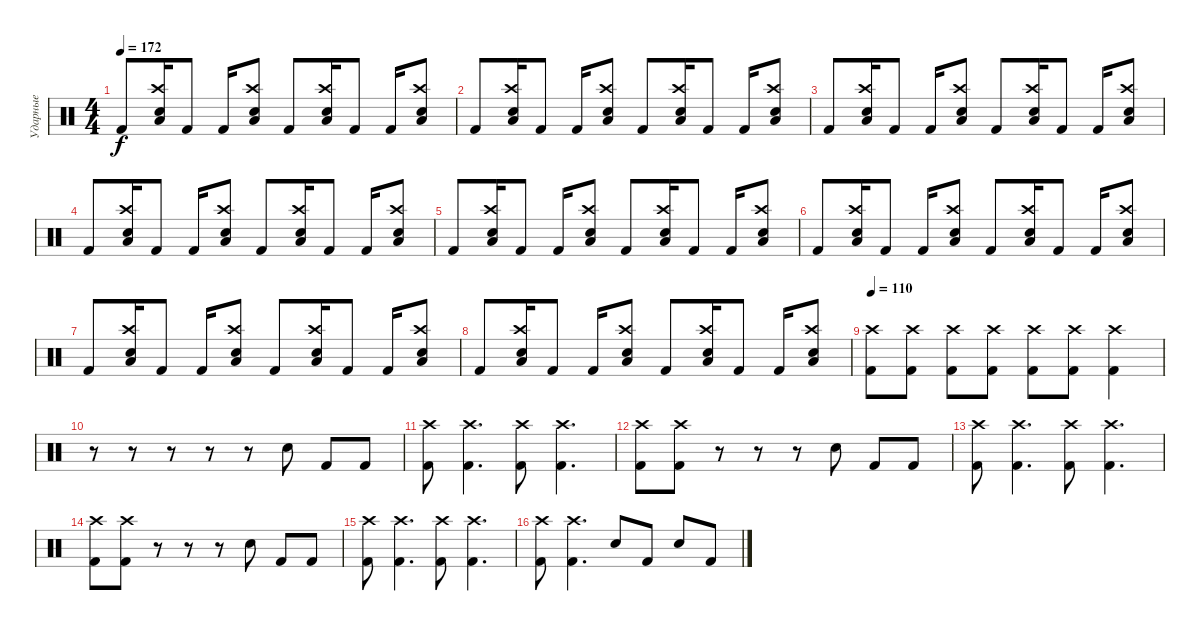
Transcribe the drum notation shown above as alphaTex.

\track ("Ударные" "Ударные") {instrument percussion}
\staff {score}
\articulation defaults
\ts (4 4)
\tempo 172
\clef neutral
\ks c "Kick (hit) 2".8{dy f}
("Low Floor Tom (hit)" "Crash high (hit)" "Electric Snare (hit)").16 "Kick (hit) 2".8 "Kick (hit) 2".16 ("Low Floor Tom (hit)" "Crash high (hit)" "Electric Snare (hit)").8 "Kick (hit) 2".8 ("Low Floor Tom (hit)" "Crash high (hit)" "Electric Snare (hit)").16 "Kick (hit) 2".8 "Kick (hit) 2".16 ("Low Floor Tom (hit)" "Crash high (hit)" "Electric Snare (hit)").8 |
"Kick (hit) 2".8 ("Low Floor Tom (hit)" "Crash high (hit)" "Electric Snare (hit)").16 "Kick (hit) 2".8 "Kick (hit) 2".16 ("Low Floor Tom (hit)" "Crash high (hit)" "Electric Snare (hit)").8 "Kick (hit) 2".8 ("Low Floor Tom (hit)" "Crash high (hit)" "Electric Snare (hit)").16 "Kick (hit) 2".8 "Kick (hit) 2".16 ("Low Floor Tom (hit)" "Crash high (hit)" "Electric Snare (hit)").8 |
"Kick (hit) 2".8 ("Low Floor Tom (hit)" "Crash high (hit)" "Electric Snare (hit)").16 "Kick (hit) 2".8 "Kick (hit) 2".16 ("Low Floor Tom (hit)" "Crash high (hit)" "Electric Snare (hit)").8 "Kick (hit) 2".8 ("Low Floor Tom (hit)" "Crash high (hit)" "Electric Snare (hit)").16 "Kick (hit) 2".8 "Kick (hit) 2".16 ("Low Floor Tom (hit)" "Crash high (hit)" "Electric Snare (hit)").8 |
"Kick (hit) 2".8 ("Low Floor Tom (hit)" "Crash high (hit)" "Electric Snare (hit)").16 "Kick (hit) 2".8 "Kick (hit) 2".16 ("Low Floor Tom (hit)" "Crash high (hit)" "Electric Snare (hit)").8 "Kick (hit) 2".8 ("Low Floor Tom (hit)" "Crash high (hit)" "Electric Snare (hit)").16 "Kick (hit) 2".8 "Kick (hit) 2".16 ("Low Floor Tom (hit)" "Crash high (hit)" "Electric Snare (hit)").8 |
"Kick (hit) 2".8 ("Low Floor Tom (hit)" "Crash high (hit)" "Electric Snare (hit)").16 "Kick (hit) 2".8 "Kick (hit) 2".16 ("Low Floor Tom (hit)" "Crash high (hit)" "Electric Snare (hit)").8 "Kick (hit) 2".8 ("Low Floor Tom (hit)" "Crash high (hit)" "Electric Snare (hit)").16 "Kick (hit) 2".8 "Kick (hit) 2".16 ("Low Floor Tom (hit)" "Crash high (hit)" "Electric Snare (hit)").8 |
"Kick (hit) 2".8 ("Low Floor Tom (hit)" "Crash high (hit)" "Electric Snare (hit)").16 "Kick (hit) 2".8 "Kick (hit) 2".16 ("Low Floor Tom (hit)" "Crash high (hit)" "Electric Snare (hit)").8 "Kick (hit) 2".8 ("Low Floor Tom (hit)" "Crash high (hit)" "Electric Snare (hit)").16 "Kick (hit) 2".8 "Kick (hit) 2".16 ("Low Floor Tom (hit)" "Crash high (hit)" "Electric Snare (hit)").8 |
"Kick (hit) 2".8 ("Low Floor Tom (hit)" "Crash high (hit)" "Electric Snare (hit)").16 "Kick (hit) 2".8 "Kick (hit) 2".16 ("Low Floor Tom (hit)" "Crash high (hit)" "Electric Snare (hit)").8 "Kick (hit) 2".8 ("Low Floor Tom (hit)" "Crash high (hit)" "Electric Snare (hit)").16 "Kick (hit) 2".8 "Kick (hit) 2".16 ("Low Floor Tom (hit)" "Crash high (hit)" "Electric Snare (hit)").8 |
"Kick (hit) 2".8 ("Low Floor Tom (hit)" "Crash high (hit)" "Electric Snare (hit)").16 "Kick (hit) 2".8 "Kick (hit) 2".16 ("Low Floor Tom (hit)" "Crash high (hit)" "Electric Snare (hit)").8 "Kick (hit) 2".8 ("Low Floor Tom (hit)" "Crash high (hit)" "Electric Snare (hit)").16 "Kick (hit) 2".8 "Kick (hit) 2".16 ("Low Floor Tom (hit)" "Crash high (hit)" "Electric Snare (hit)").8 |
\tempo 110
("Crash high (hit)" "Kick (hit) 2").8 ("Crash high (hit)" "Kick (hit) 2").8 ("Crash high (hit)" "Kick (hit) 2").8 ("Crash high (hit)" "Kick (hit) 2").8 ("Crash high (hit)" "Kick (hit) 2").8 ("Crash high (hit)" "Kick (hit) 2").8 ("Crash high (hit)" "Kick (hit) 2").4 |
r.8 r.8 r.8 r.8 r.8 "Electric Snare (hit)".8 "Kick (hit) 2".8 "Kick (hit) 2".8 |
("Crash high (hit)" "Kick (hit) 2").8 ("Crash high (hit)" "Kick (hit) 2").4{d} ("Crash high (hit)" "Kick (hit) 2").8 ("Crash high (hit)" "Kick (hit) 2").4{d} |
("Crash high (hit)" "Kick (hit) 2").8 ("Crash high (hit)" "Kick (hit) 2").8 r.8 r.8 r.8 "Electric Snare (hit)".8 "Kick (hit) 2".8 "Kick (hit) 2".8 |
("Crash high (hit)" "Kick (hit) 2").8 ("Crash high (hit)" "Kick (hit) 2").4{d} ("Crash high (hit)" "Kick (hit) 2").8 ("Crash high (hit)" "Kick (hit) 2").4{d} |
("Crash high (hit)" "Kick (hit) 2").8 ("Crash high (hit)" "Kick (hit) 2").8 r.8 r.8 r.8 "Electric Snare (hit)".8 "Kick (hit) 2".8 "Kick (hit) 2".8 |
("Crash high (hit)" "Kick (hit) 2").8 ("Crash high (hit)" "Kick (hit) 2").4{d} ("Crash high (hit)" "Kick (hit) 2").8 ("Crash high (hit)" "Kick (hit) 2").4{d} |
("Crash high (hit)" "Kick (hit) 2").8 ("Crash high (hit)" "Kick (hit) 2").4{d} "Electric Snare (hit)".8 "Kick (hit) 2".8 "Electric Snare (hit)".8 "Kick (hit) 2".8
